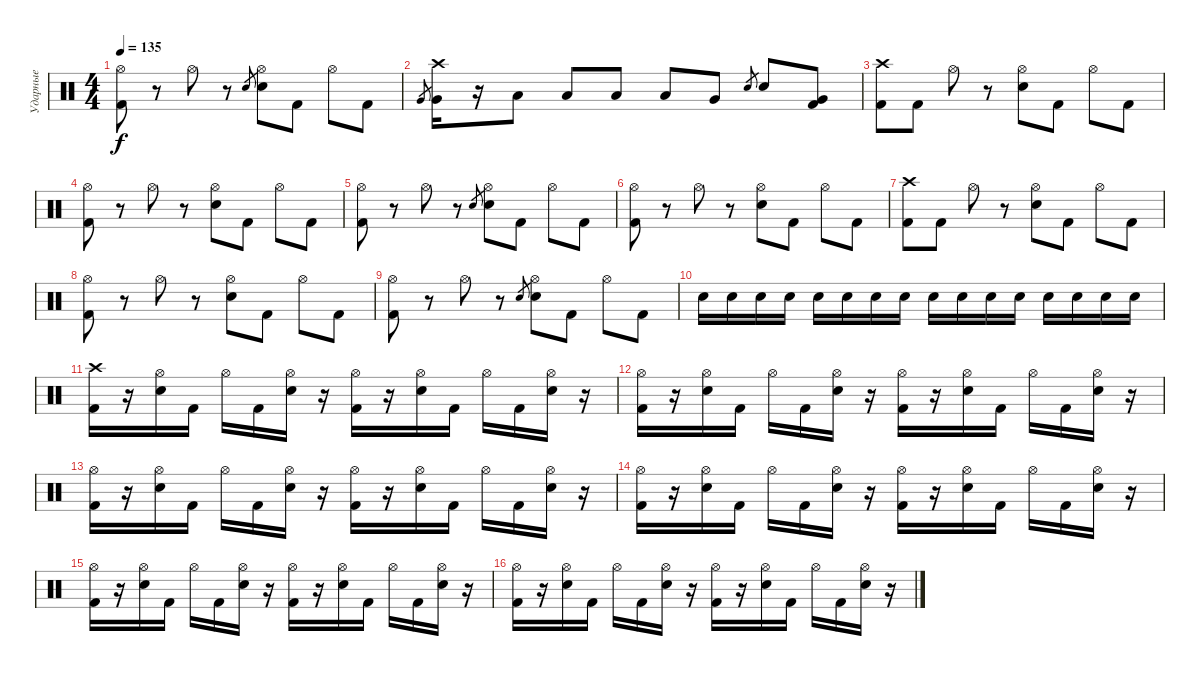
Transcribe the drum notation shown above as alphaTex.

\track ("Ударные" "Ударные") {instrument percussion}
\staff {score}
\articulation defaults
\ts (4 4)
\tempo 135
\clef neutral
\ks c
("Hi-Hat (open)" "Kick (hit) 2").8{dy f} r.8 "Hi-Hat (open)".8 r.8 "Electric Snare (hit)".8{gr} ("Hi-Hat (open)" "Electric Snare (hit)").8 "Kick (hit) 2".8 "Hi-Hat (open)".8 "Kick (hit) 2".8 |
"Very Low Tom (hit)".8{gr} ("Crash high (hit)" "Very Low Tom (hit)").16 r.16 "Low Tom (hit)".8 "Low Tom (hit)".8 "Low Tom (hit)".8 "Low Tom (hit)".8 "Very Low Tom (hit)".8 "Electric Snare (hit)".8{gr} "Electric Snare (hit)".8 ("Very Low Tom (hit)" "Kick (hit) 2").8 |
("Crash high (hit)" "Kick (hit) 2").8 "Kick (hit) 2".8 "Hi-Hat (open)".8 r.8 ("Hi-Hat (open)" "Electric Snare (hit)").8 "Kick (hit) 2".8 "Hi-Hat (open)".8 "Kick (hit) 2".8 |
("Hi-Hat (open)" "Kick (hit) 2").8 r.8 "Hi-Hat (open)".8 r.8 ("Hi-Hat (open)" "Electric Snare (hit)").8 "Kick (hit) 2".8 "Hi-Hat (open)".8 "Kick (hit) 2".8 |
("Hi-Hat (open)" "Kick (hit) 2").8 r.8 "Hi-Hat (open)".8 r.8 "Electric Snare (hit)".8{gr} ("Hi-Hat (open)" "Electric Snare (hit)").8 "Kick (hit) 2".8 "Hi-Hat (open)".8 "Kick (hit) 2".8 |
("Hi-Hat (open)" "Kick (hit) 2").8 r.8 "Hi-Hat (open)".8 r.8 ("Hi-Hat (open)" "Electric Snare (hit)").8 "Kick (hit) 2".8 "Hi-Hat (open)".8 "Kick (hit) 2".8 |
("Crash high (hit)" "Kick (hit) 2").8 "Kick (hit) 2".8 "Hi-Hat (open)".8 r.8 ("Hi-Hat (open)" "Electric Snare (hit)").8 "Kick (hit) 2".8 "Hi-Hat (open)".8 "Kick (hit) 2".8 |
("Hi-Hat (open)" "Kick (hit) 2").8 r.8 "Hi-Hat (open)".8 r.8 ("Hi-Hat (open)" "Electric Snare (hit)").8 "Kick (hit) 2".8 "Hi-Hat (open)".8 "Kick (hit) 2".8 |
("Hi-Hat (open)" "Kick (hit) 2").8 r.8 "Hi-Hat (open)".8 r.8 "Electric Snare (hit)".8{gr} ("Hi-Hat (open)" "Electric Snare (hit)").8 "Kick (hit) 2".8 "Hi-Hat (open)".8 "Kick (hit) 2".8 |
"Electric Snare (hit)".16 "Electric Snare (hit)".16 "Electric Snare (hit)".16 "Electric Snare (hit)".16 "Electric Snare (hit)".16 "Electric Snare (hit)".16 "Electric Snare (hit)".16 "Electric Snare (hit)".16 "Electric Snare (hit)".16 "Electric Snare (hit)".16 "Electric Snare (hit)".16 "Electric Snare (hit)".16 "Electric Snare (hit)".16 "Electric Snare (hit)".16 "Electric Snare (hit)".16 "Electric Snare (hit)".16 |
("Crash high (hit)" "Kick (hit) 2").16 r.16 ("Hi-Hat (open)" "Electric Snare (hit)").16 "Kick (hit) 2".16 "Hi-Hat (open)".16 "Kick (hit) 2".16 ("Hi-Hat (open)" "Electric Snare (hit)").16 r.16 ("Hi-Hat (open)" "Kick (hit) 2").16 r.16 ("Hi-Hat (open)" "Electric Snare (hit)").16 "Kick (hit) 2".16 "Hi-Hat (open)".16 "Kick (hit) 2".16 ("Hi-Hat (open)" "Electric Snare (hit)").16 r.16 |
("Hi-Hat (open)" "Kick (hit) 2").16 r.16 ("Hi-Hat (open)" "Electric Snare (hit)").16 "Kick (hit) 2".16 "Hi-Hat (open)".16 "Kick (hit) 2".16 ("Hi-Hat (open)" "Electric Snare (hit)").16 r.16 ("Hi-Hat (open)" "Kick (hit) 2").16 r.16 ("Hi-Hat (open)" "Electric Snare (hit)").16 "Kick (hit) 2".16 "Hi-Hat (open)".16 "Kick (hit) 2".16 ("Hi-Hat (open)" "Electric Snare (hit)").16 r.16 |
("Hi-Hat (open)" "Kick (hit) 2").16 r.16 ("Hi-Hat (open)" "Electric Snare (hit)").16 "Kick (hit) 2".16 "Hi-Hat (open)".16 "Kick (hit) 2".16 ("Hi-Hat (open)" "Electric Snare (hit)").16 r.16 ("Hi-Hat (open)" "Kick (hit) 2").16 r.16 ("Hi-Hat (open)" "Electric Snare (hit)").16 "Kick (hit) 2".16 "Hi-Hat (open)".16 "Kick (hit) 2".16 ("Hi-Hat (open)" "Electric Snare (hit)").16 r.16 |
("Hi-Hat (open)" "Kick (hit) 2").16 r.16 ("Hi-Hat (open)" "Electric Snare (hit)").16 "Kick (hit) 2".16 "Hi-Hat (open)".16 "Kick (hit) 2".16 ("Hi-Hat (open)" "Electric Snare (hit)").16 r.16 ("Hi-Hat (open)" "Kick (hit) 2").16 r.16 ("Hi-Hat (open)" "Electric Snare (hit)").16 "Kick (hit) 2".16 "Hi-Hat (open)".16 "Kick (hit) 2".16 ("Hi-Hat (open)" "Electric Snare (hit)").16 r.16 |
("Hi-Hat (open)" "Kick (hit) 2").16 r.16 ("Hi-Hat (open)" "Electric Snare (hit)").16 "Kick (hit) 2".16 "Hi-Hat (open)".16 "Kick (hit) 2".16 ("Hi-Hat (open)" "Electric Snare (hit)").16 r.16 ("Hi-Hat (open)" "Kick (hit) 2").16 r.16 ("Hi-Hat (open)" "Electric Snare (hit)").16 "Kick (hit) 2".16 "Hi-Hat (open)".16 "Kick (hit) 2".16 ("Hi-Hat (open)" "Electric Snare (hit)").16 r.16 |
("Hi-Hat (open)" "Kick (hit) 2").16 r.16 ("Hi-Hat (open)" "Electric Snare (hit)").16 "Kick (hit) 2".16 "Hi-Hat (open)".16 "Kick (hit) 2".16 ("Hi-Hat (open)" "Electric Snare (hit)").16 r.16 ("Hi-Hat (open)" "Kick (hit) 2").16 r.16 ("Hi-Hat (open)" "Electric Snare (hit)").16 "Kick (hit) 2".16 "Hi-Hat (open)".16 "Kick (hit) 2".16 ("Hi-Hat (open)" "Electric Snare (hit)").16 r.16
